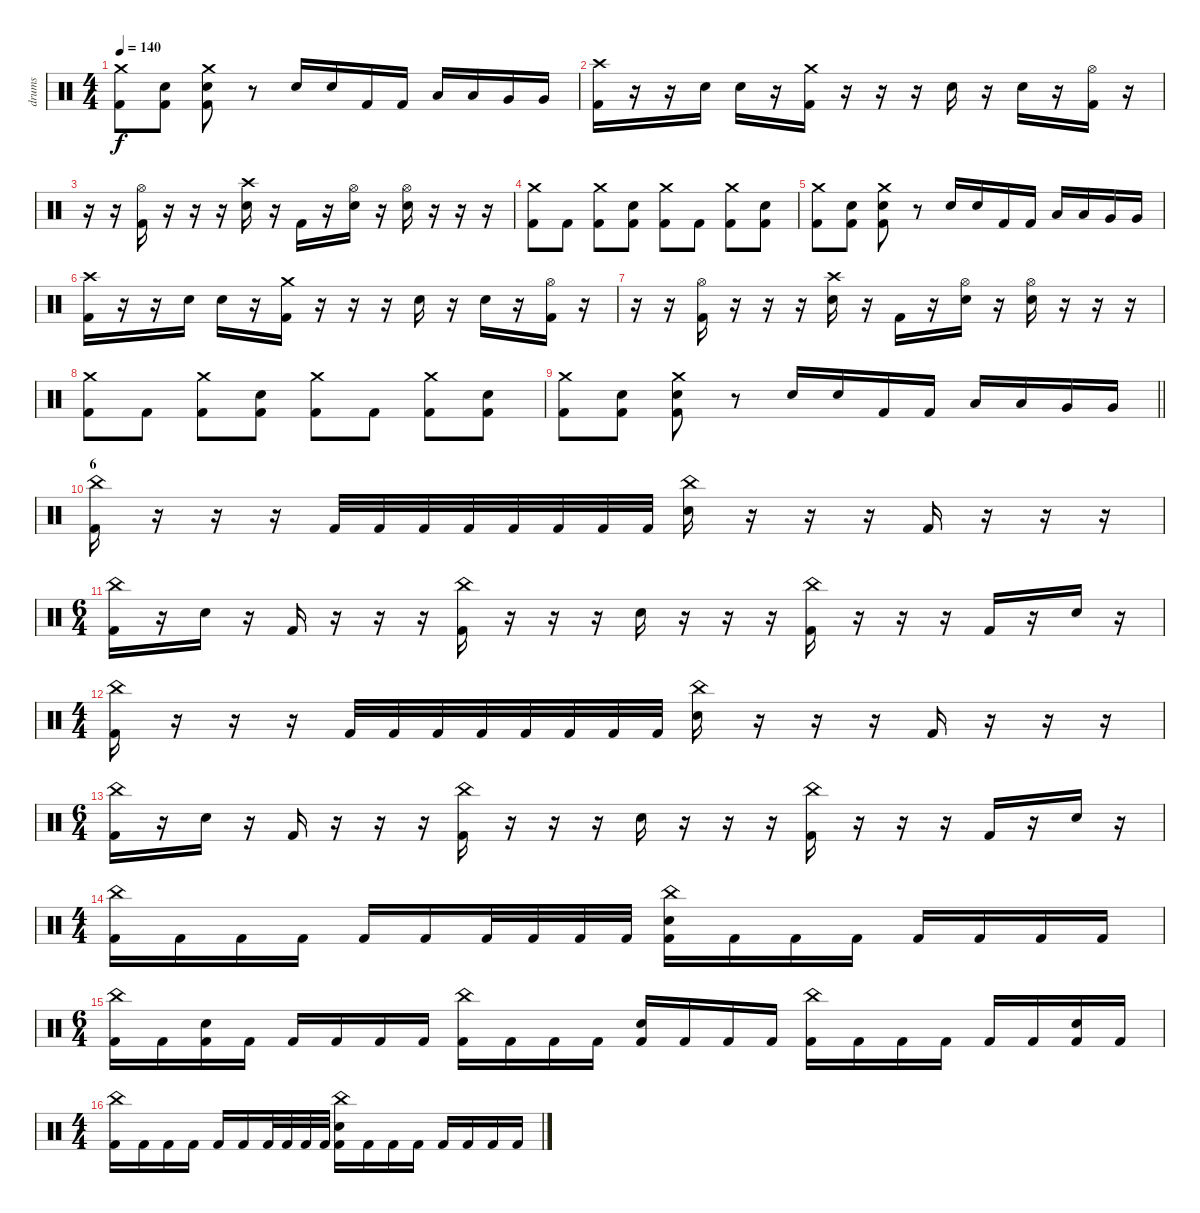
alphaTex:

\track ("drums" "drums") {instrument percussion}
\staff {score}
\articulation defaults
\ts (4 4)
\tempo 140
\clef neutral
\ks c
("Crash medium (hit)" "Kick (hit) 2").8{dy f} ("Electric Snare (hit)" "Kick (hit) 2").8 ("Crash medium (hit)" "Electric Snare (hit)" "Kick (hit) 2").8 r.8 "Electric Snare (hit)".16 "Electric Snare (hit)".16 "Kick (hit) 2".16 "Kick (hit) 2".16 "Low Tom (hit)".16 "Low Tom (hit)".16 "Very Low Tom (hit)".16 "Very Low Tom (hit)".16 |
("Crash high (hit)" "Kick (hit) 2").16 r.16 r.16 "Electric Snare (hit)".16 "Electric Snare (hit)".16 r.16 ("Crash medium (hit)" "Kick (hit) 2").16 r.16 r.16 r.16 "Electric Snare (hit)".16 r.16 "Electric Snare (hit)".16 r.16 ("Hi-Hat (open)" "Kick (hit) 2").16 r.16 |
r.16 r.16 ("Hi-Hat (open)" "Kick (hit) 2").16 r.16 r.16 r.16 ("Crash high (hit)" "Electric Snare (hit)").16 r.16 "Kick (hit) 2".16 r.16 ("Hi-Hat (open)" "Electric Snare (hit)").16 r.16 ("Hi-Hat (open)" "Electric Snare (hit)").16 r.16 r.16 r.16 |
("Crash medium (hit)" "Kick (hit) 2").8 "Kick (hit) 2".8 ("Crash medium (hit)" "Kick (hit) 2").8 ("Electric Snare (hit)" "Kick (hit) 2").8 ("Crash medium (hit)" "Kick (hit) 2").8 "Kick (hit) 2".8 ("Crash medium (hit)" "Kick (hit) 2").8 ("Electric Snare (hit)" "Kick (hit) 2").8 |
("Crash medium (hit)" "Kick (hit) 2").8 ("Electric Snare (hit)" "Kick (hit) 2").8 ("Crash medium (hit)" "Electric Snare (hit)" "Kick (hit) 2").8 r.8 "Electric Snare (hit)".16 "Electric Snare (hit)".16 "Kick (hit) 2".16 "Kick (hit) 2".16 "Low Tom (hit)".16 "Low Tom (hit)".16 "Very Low Tom (hit)".16 "Very Low Tom (hit)".16 |
("Crash high (hit)" "Kick (hit) 2").16 r.16 r.16 "Electric Snare (hit)".16 "Electric Snare (hit)".16 r.16 ("Crash medium (hit)" "Kick (hit) 2").16 r.16 r.16 r.16 "Electric Snare (hit)".16 r.16 "Electric Snare (hit)".16 r.16 ("Hi-Hat (open)" "Kick (hit) 2").16 r.16 |
r.16 r.16 ("Hi-Hat (open)" "Kick (hit) 2").16 r.16 r.16 r.16 ("Crash high (hit)" "Electric Snare (hit)").16 r.16 "Kick (hit) 2".16 r.16 ("Hi-Hat (open)" "Electric Snare (hit)").16 r.16 ("Hi-Hat (open)" "Electric Snare (hit)").16 r.16 r.16 r.16 |
("Crash medium (hit)" "Kick (hit) 2").8 "Kick (hit) 2".8 ("Crash medium (hit)" "Kick (hit) 2").8 ("Electric Snare (hit)" "Kick (hit) 2").8 ("Crash medium (hit)" "Kick (hit) 2").8 "Kick (hit) 2".8 ("Crash medium (hit)" "Kick (hit) 2").8 ("Electric Snare (hit)" "Kick (hit) 2").8 |
\barLineRight lightlight
("Crash medium (hit)" "Kick (hit) 2").8 ("Electric Snare (hit)" "Kick (hit) 2").8 ("Crash medium (hit)" "Electric Snare (hit)" "Kick (hit) 2").8 r.8 "Electric Snare (hit)".16 "Electric Snare (hit)".16 "Kick (hit) 2".16 "Kick (hit) 2".16 "Low Tom (hit)".16 "Low Tom (hit)".16 "Very Low Tom (hit)".16 "Very Low Tom (hit)".16 |
\section ("" "6")
("China (hit)" "Kick (hit) 2").16 r.16 r.16 r.16 "Kick (hit) 2".32 "Kick (hit) 2".32 "Kick (hit) 2".32 "Kick (hit) 2".32 "Kick (hit) 2".32 "Kick (hit) 2".32 "Kick (hit) 2".32 "Kick (hit) 2".32 ("China (hit)" "Electric Snare (hit)").16 r.16 r.16 r.16 "Kick (hit) 2".16 r.16 r.16 r.16 |
\ts (6 4)
("China (hit)" "Kick (hit) 2").16 r.16 "Electric Snare (hit)".16 r.16 "Kick (hit) 2".16 r.16 r.16 r.16 ("China (hit)" "Kick (hit) 2").16 r.16 r.16 r.16 "Electric Snare (hit)".16 r.16 r.16 r.16 ("China (hit)" "Kick (hit) 2").16 r.16 r.16 r.16 "Kick (hit) 2".16 r.16 "Electric Snare (hit)".16 r.16 |
\ts (4 4)
("China (hit)" "Kick (hit) 2").16 r.16 r.16 r.16 "Kick (hit) 2".32 "Kick (hit) 2".32 "Kick (hit) 2".32 "Kick (hit) 2".32 "Kick (hit) 2".32 "Kick (hit) 2".32 "Kick (hit) 2".32 "Kick (hit) 2".32 ("China (hit)" "Electric Snare (hit)").16 r.16 r.16 r.16 "Kick (hit) 2".16 r.16 r.16 r.16 |
\ts (6 4)
("China (hit)" "Kick (hit) 2").16 r.16 "Electric Snare (hit)".16 r.16 "Kick (hit) 2".16 r.16 r.16 r.16 ("China (hit)" "Kick (hit) 2").16 r.16 r.16 r.16 "Electric Snare (hit)".16 r.16 r.16 r.16 ("China (hit)" "Kick (hit) 2").16 r.16 r.16 r.16 "Kick (hit) 2".16 r.16 "Electric Snare (hit)".16 r.16 |
\ts (4 4)
("China (hit)" "Kick (hit) 2").16 "Kick (hit) 2".16 "Kick (hit) 2".16 "Kick (hit) 2".16 "Kick (hit) 2".16 "Kick (hit) 2".16 "Kick (hit) 2".32 "Kick (hit) 2".32 "Kick (hit) 2".32 "Kick (hit) 2".32 ("China (hit)" "Electric Snare (hit)" "Kick (hit) 2").16 "Kick (hit) 2".16 "Kick (hit) 2".16 "Kick (hit) 2".16 "Kick (hit) 2".16 "Kick (hit) 2".16 "Kick (hit) 2".16 "Kick (hit) 2".16 |
\ts (6 4)
("China (hit)" "Kick (hit) 2").16 "Kick (hit) 2".16 ("Electric Snare (hit)" "Kick (hit) 2").16 "Kick (hit) 2".16 "Kick (hit) 2".16 "Kick (hit) 2".16 "Kick (hit) 2".16 "Kick (hit) 2".16 ("China (hit)" "Kick (hit) 2").16 "Kick (hit) 2".16 "Kick (hit) 2".16 "Kick (hit) 2".16 ("Electric Snare (hit)" "Kick (hit) 2").16 "Kick (hit) 2".16 "Kick (hit) 2".16 "Kick (hit) 2".16 ("China (hit)" "Kick (hit) 2").16 "Kick (hit) 2".16 "Kick (hit) 2".16 "Kick (hit) 2".16 "Kick (hit) 2".16 "Kick (hit) 2".16 ("Electric Snare (hit)" "Kick (hit) 2").16 "Kick (hit) 2".16 |
\ts (4 4)
("China (hit)" "Kick (hit) 2").16 "Kick (hit) 2".16 "Kick (hit) 2".16 "Kick (hit) 2".16 "Kick (hit) 2".16 "Kick (hit) 2".16 "Kick (hit) 2".32 "Kick (hit) 2".32 "Kick (hit) 2".32 "Kick (hit) 2".32 ("China (hit)" "Electric Snare (hit)" "Kick (hit) 2").16 "Kick (hit) 2".16 "Kick (hit) 2".16 "Kick (hit) 2".16 "Kick (hit) 2".16 "Kick (hit) 2".16 "Kick (hit) 2".16 "Kick (hit) 2".16
